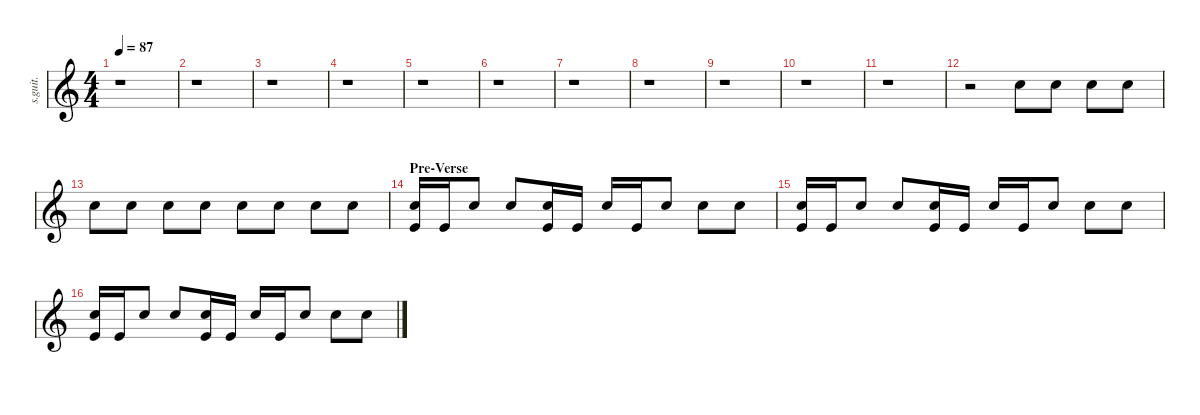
\defaultSystemsLayout 4
\hideDynamics
\bracketExtendMode nobrackets
\track ("Taylor Hawkins (Drums)" "s.guit.") {instrument percussion}
\staff {score}
\articulation defaults
\ts (4 4)
\beaming (8 2 2 2 2)
\tempo 87
\clef g2
\ks c
r.1{dy f} |
r.1 |
r.1 |
r.1 |
r.1 |
r.1 |
r.1 |
r.1 |
r.1 |
r.1 |
r.1 |
r.2 "Snare (hit) 2".8{lyrics (0 "") lyrics (1 "") lyrics (2 "") lyrics (3 "") lyrics (4 "")} "Snare (hit) 2".8{lyrics (0 "") lyrics (1 "") lyrics (2 "") lyrics (3 "") lyrics (4 "")} "Snare (hit) 2".8{lyrics (0 "") lyrics (1 "") lyrics (2 "") lyrics (3 "") lyrics (4 "")} "Snare (hit) 2".8{lyrics (0 "") lyrics (1 "") lyrics (2 "") lyrics (3 "") lyrics (4 "")} |
"Snare (hit) 2".8{lyrics (0 "") lyrics (1 "") lyrics (2 "") lyrics (3 "") lyrics (4 "")} "Snare (hit) 2".8{lyrics (0 "") lyrics (1 "") lyrics (2 "") lyrics (3 "") lyrics (4 "")} "Snare (hit) 2".8{lyrics (0 "") lyrics (1 "") lyrics (2 "") lyrics (3 "") lyrics (4 "")} "Snare (hit) 2".8{lyrics (0 "") lyrics (1 "") lyrics (2 "") lyrics (3 "") lyrics (4 "")} "Snare (hit) 2".8{lyrics (0 "") lyrics (1 "") lyrics (2 "") lyrics (3 "") lyrics (4 "")} "Snare (hit) 2".8{lyrics (0 "") lyrics (1 "") lyrics (2 "") lyrics (3 "") lyrics (4 "")} "Snare (hit) 2".8{lyrics (0 "") lyrics (1 "") lyrics (2 "") lyrics (3 "") lyrics (4 "")} "Snare (hit) 2".8{lyrics (0 "") lyrics (1 "") lyrics (2 "") lyrics (3 "") lyrics (4 "")} |
\section ("" "Pre-Verse")
("Snare (hit) 2" "Kick (hit)").16{lyrics (0 "") lyrics (1 "") lyrics (2 "") lyrics (3 "") lyrics (4 "")} "Kick (hit)".16{lyrics (0 "") lyrics (1 "") lyrics (2 "") lyrics (3 "") lyrics (4 "")} "Snare (hit) 2".8{lyrics (0 "") lyrics (1 "") lyrics (2 "") lyrics (3 "") lyrics (4 "")} "Snare (hit) 2".8{lyrics (0 "") lyrics (1 "") lyrics (2 "") lyrics (3 "") lyrics (4 "")} ("Snare (hit) 2" "Kick (hit)").16{lyrics (0 "") lyrics (1 "") lyrics (2 "") lyrics (3 "") lyrics (4 "")} "Kick (hit)".16{lyrics (0 "") lyrics (1 "") lyrics (2 "") lyrics (3 "") lyrics (4 "")} "Snare (hit) 2".16{lyrics (0 "") lyrics (1 "") lyrics (2 "") lyrics (3 "") lyrics (4 "")} "Kick (hit)".16{lyrics (0 "") lyrics (1 "") lyrics (2 "") lyrics (3 "") lyrics (4 "")} "Snare (hit) 2".8{lyrics (0 "") lyrics (1 "") lyrics (2 "") lyrics (3 "") lyrics (4 "")} "Snare (hit) 2".8{lyrics (0 "") lyrics (1 "") lyrics (2 "") lyrics (3 "") lyrics (4 "")} "Snare (hit) 2".8{lyrics (0 "") lyrics (1 "") lyrics (2 "") lyrics (3 "") lyrics (4 "")} |
("Snare (hit) 2" "Kick (hit)").16{lyrics (0 "") lyrics (1 "") lyrics (2 "") lyrics (3 "") lyrics (4 "")} "Kick (hit)".16{lyrics (0 "") lyrics (1 "") lyrics (2 "") lyrics (3 "") lyrics (4 "")} "Snare (hit) 2".8{lyrics (0 "") lyrics (1 "") lyrics (2 "") lyrics (3 "") lyrics (4 "")} "Snare (hit) 2".8{lyrics (0 "") lyrics (1 "") lyrics (2 "") lyrics (3 "") lyrics (4 "")} ("Snare (hit) 2" "Kick (hit)").16{lyrics (0 "") lyrics (1 "") lyrics (2 "") lyrics (3 "") lyrics (4 "")} "Kick (hit)".16{lyrics (0 "") lyrics (1 "") lyrics (2 "") lyrics (3 "") lyrics (4 "")} "Snare (hit) 2".16{lyrics (0 "") lyrics (1 "") lyrics (2 "") lyrics (3 "") lyrics (4 "")} "Kick (hit)".16{lyrics (0 "") lyrics (1 "") lyrics (2 "") lyrics (3 "") lyrics (4 "")} "Snare (hit) 2".8{lyrics (0 "") lyrics (1 "") lyrics (2 "") lyrics (3 "") lyrics (4 "")} "Snare (hit) 2".8{lyrics (0 "") lyrics (1 "") lyrics (2 "") lyrics (3 "") lyrics (4 "")} "Snare (hit) 2".8{lyrics (0 "") lyrics (1 "") lyrics (2 "") lyrics (3 "") lyrics (4 "")} |
("Snare (hit) 2" "Kick (hit)").16{lyrics (0 "") lyrics (1 "") lyrics (2 "") lyrics (3 "") lyrics (4 "")} "Kick (hit)".16{lyrics (0 "") lyrics (1 "") lyrics (2 "") lyrics (3 "") lyrics (4 "")} "Snare (hit) 2".8{lyrics (0 "") lyrics (1 "") lyrics (2 "") lyrics (3 "") lyrics (4 "")} "Snare (hit) 2".8{lyrics (0 "") lyrics (1 "") lyrics (2 "") lyrics (3 "") lyrics (4 "")} ("Snare (hit) 2" "Kick (hit)").16{lyrics (0 "") lyrics (1 "") lyrics (2 "") lyrics (3 "") lyrics (4 "")} "Kick (hit)".16{lyrics (0 "") lyrics (1 "") lyrics (2 "") lyrics (3 "") lyrics (4 "")} "Snare (hit) 2".16{lyrics (0 "") lyrics (1 "") lyrics (2 "") lyrics (3 "") lyrics (4 "")} "Kick (hit)".16{lyrics (0 "") lyrics (1 "") lyrics (2 "") lyrics (3 "") lyrics (4 "")} "Snare (hit) 2".8{lyrics (0 "") lyrics (1 "") lyrics (2 "") lyrics (3 "") lyrics (4 "")} "Snare (hit) 2".8{lyrics (0 "") lyrics (1 "") lyrics (2 "") lyrics (3 "") lyrics (4 "")} "Snare (hit) 2".8{lyrics (0 "") lyrics (1 "") lyrics (2 "") lyrics (3 "") lyrics (4 "")}
